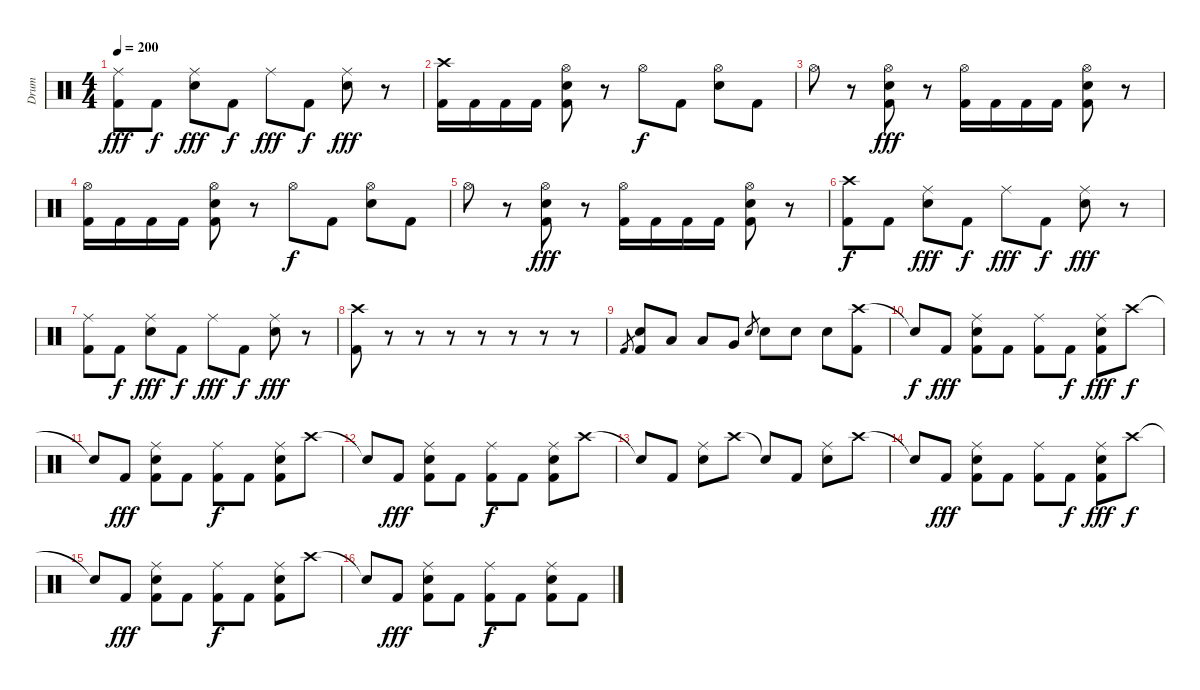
\track ("Drum" "Drum") {instrument percussion}
\staff {score}
\articulation defaults
\ts (4 4)
\tempo 200
\clef neutral
\ks c
("Ride (middle)" "Kick (hit) 2").8{dy fff} "Kick (hit) 2".8{dy f} ("Ride (middle)" "Electric Snare (hit)").8{dy fff} "Kick (hit) 2".8{dy f} "Ride (middle)".8{dy fff} "Kick (hit) 2".8{dy f} ("Ride (middle)" "Electric Snare (hit)").8{dy fff} r.8 |
("Crash high (hit)" "Kick (hit) 2").16 "Kick (hit) 2".16 "Kick (hit) 2".16 "Kick (hit) 2".16 ("Hi-Hat (open)" "Electric Snare (hit)" "Kick (hit) 2").8 r.8 "Hi-Hat (open)".8{dy f} "Kick (hit) 2".8 ("Hi-Hat (open)" "Electric Snare (hit)").8 "Kick (hit) 2".8 |
"Hi-Hat (open)".8 r.8 ("Hi-Hat (open)" "Electric Snare (hit)" "Kick (hit) 2").8{dy fff} r.8 ("Hi-Hat (open)" "Kick (hit) 2").16 "Kick (hit) 2".16 "Kick (hit) 2".16 "Kick (hit) 2".16 ("Hi-Hat (open)" "Electric Snare (hit)" "Kick (hit) 2").8 r.8 |
("Hi-Hat (open)" "Kick (hit) 2").16 "Kick (hit) 2".16 "Kick (hit) 2".16 "Kick (hit) 2".16 ("Hi-Hat (open)" "Electric Snare (hit)" "Kick (hit) 2").8 r.8 "Hi-Hat (open)".8{dy f} "Kick (hit) 2".8 ("Hi-Hat (open)" "Electric Snare (hit)").8 "Kick (hit) 2".8 |
"Hi-Hat (open)".8 r.8 ("Hi-Hat (open)" "Electric Snare (hit)" "Kick (hit) 2").8{dy fff} r.8 ("Hi-Hat (open)" "Kick (hit) 2").16 "Kick (hit) 2".16 "Kick (hit) 2".16 "Kick (hit) 2".16 ("Hi-Hat (open)" "Electric Snare (hit)" "Kick (hit) 2").8 r.8 |
("Crash high (hit)" "Kick (hit) 2").8{dy f} "Kick (hit) 2".8 ("Ride (middle)" "Electric Snare (hit)").8{dy fff} "Kick (hit) 2".8{dy f} "Ride (middle)".8{dy fff} "Kick (hit) 2".8{dy f} ("Ride (middle)" "Electric Snare (hit)").8{dy fff} r.8 |
("Ride (middle)" "Kick (hit) 2").8 "Kick (hit) 2".8{dy f} ("Ride (middle)" "Electric Snare (hit)").8{dy fff} "Kick (hit) 2".8{dy f} "Ride (middle)".8{dy fff} "Kick (hit) 2".8{dy f} ("Ride (middle)" "Electric Snare (hit)").8{dy fff} r.8 |
("Crash high (hit)" "Kick (hit) 2").8 r.8 r.8 r.8 r.8 r.8 r.8 r.8 |
"Kick (hit) 2".8{gr} ("Electric Snare (hit)" "Kick (hit) 2").8 "Low Tom (hit)".8 "Low Tom (hit)".8 "Very Low Tom (hit)".8 "Electric Snare (hit)".8{gr} "Electric Snare (hit)".8 "Electric Snare (hit)".8 "Electric Snare (hit)".8 ("Crash high (hit)" "Kick (hit) 2").8 |
"Snare (hit)"{t}.8{dy f} "Kick (hit) 2".8{dy fff} ("Ride (middle)" "Electric Snare (hit)" "Kick (hit) 2").8 "Kick (hit) 2".8 ("Ride (middle)" "Kick (hit) 2").8 "Kick (hit) 2".8{dy f} ("Ride (middle)" "Electric Snare (hit)" "Kick (hit) 2").8{dy fff} "Crash high (hit)".8{dy f} |
"Snare (hit)"{t}.8 "Kick (hit) 2".8{dy fff} ("Ride (middle)" "Electric Snare (hit)" "Kick (hit) 2").8 "Kick (hit) 2".8 ("Ride (middle)" "Kick (hit) 2").8{dy f} "Kick (hit) 2".8 ("Ride (middle)" "Electric Snare (hit)" "Kick (hit) 2").8 "Crash high (hit)".8 |
"Snare (hit)"{t}.8 "Kick (hit) 2".8{dy fff} ("Ride (middle)" "Electric Snare (hit)" "Kick (hit) 2").8 "Kick (hit) 2".8 ("Ride (middle)" "Kick (hit) 2").8{dy f} "Kick (hit) 2".8 ("Ride (middle)" "Electric Snare (hit)" "Kick (hit) 2").8 "Crash high (hit)".8 |
"Snare (hit)"{t}.8 "Kick (hit) 2".8 ("Ride (middle)" "Electric Snare (hit)").8 "Crash high (hit)".8 "Snare (hit)"{t}.8 "Kick (hit) 2".8 ("Ride (middle)" "Electric Snare (hit)").8 "Crash high (hit)".8 |
"Snare (hit)"{t}.8 "Kick (hit) 2".8{dy fff} ("Ride (middle)" "Electric Snare (hit)" "Kick (hit) 2").8 "Kick (hit) 2".8 ("Ride (middle)" "Kick (hit) 2").8 "Kick (hit) 2".8{dy f} ("Ride (middle)" "Electric Snare (hit)" "Kick (hit) 2").8{dy fff} "Crash high (hit)".8{dy f} |
"Snare (hit)"{t}.8 "Kick (hit) 2".8{dy fff} ("Ride (middle)" "Electric Snare (hit)" "Kick (hit) 2").8 "Kick (hit) 2".8 ("Ride (middle)" "Kick (hit) 2").8{dy f} "Kick (hit) 2".8 ("Ride (middle)" "Electric Snare (hit)" "Kick (hit) 2").8 "Crash high (hit)".8 |
"Snare (hit)"{t}.8 "Kick (hit) 2".8{dy fff} ("Ride (middle)" "Electric Snare (hit)" "Kick (hit) 2").8 "Kick (hit) 2".8 ("Ride (middle)" "Kick (hit) 2").8{dy f} "Kick (hit) 2".8 ("Ride (middle)" "Electric Snare (hit)" "Kick (hit) 2").8 "Kick (hit) 2".8
